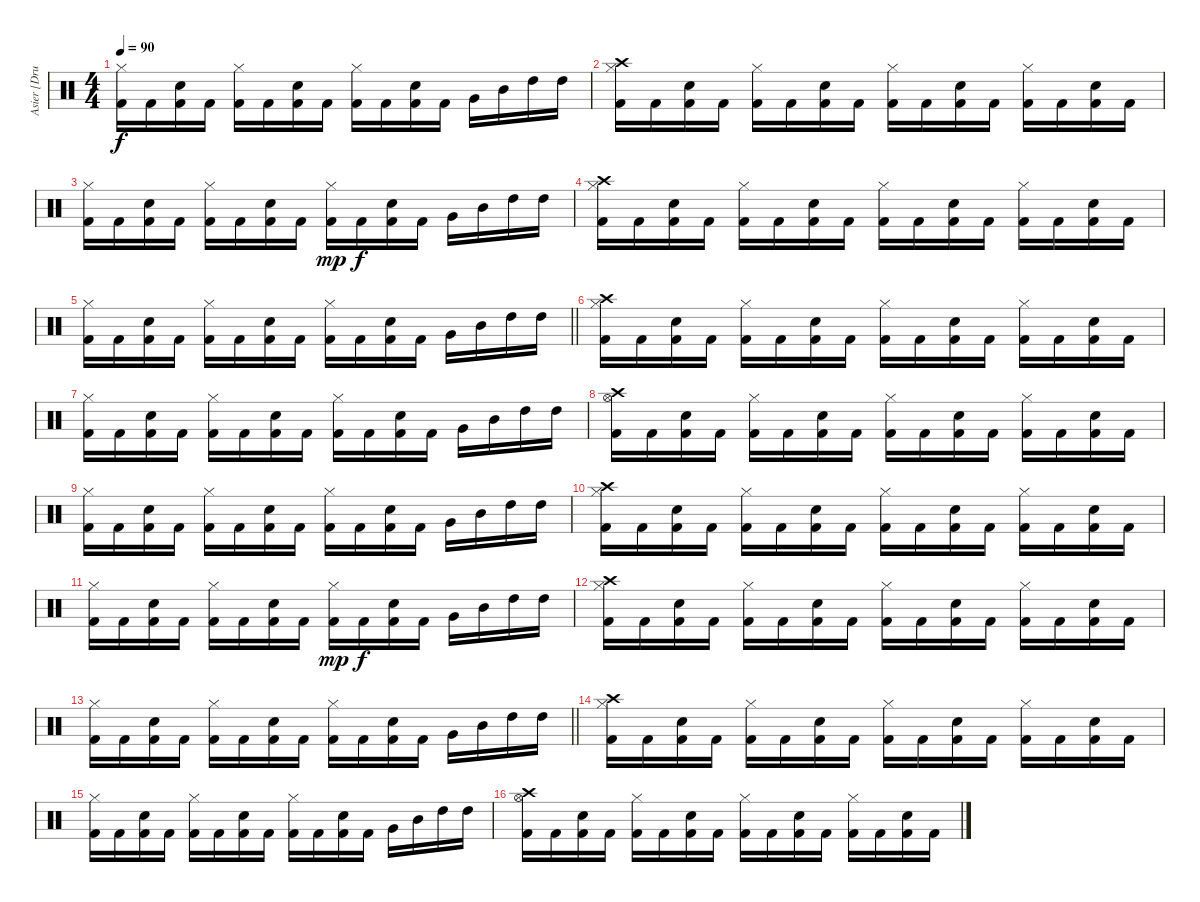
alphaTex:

\track ("Asier [Drums]" "Asier [Dru") {instrument percussion}
\staff {score}
\articulation defaults
\ts (4 4)
\tempo 90
\clef neutral
\ks c
("Hi-Hat (closed)" "Kick (hit) 2").16{dy f} "Kick (hit) 2".16 ("Snare (hit) 2" "Kick (hit) 2").16 "Kick (hit) 2".16 ("Hi-Hat (closed)" "Kick (hit) 2").16 "Kick (hit) 2".16 ("Snare (hit) 2" "Kick (hit) 2").16 "Kick (hit) 2".16 ("Hi-Hat (closed)" "Kick (hit) 2").16 "Kick (hit) 2".16 ("Snare (hit) 2" "Kick (hit) 2").16 "Kick (hit) 2".16 "Very Low Tom (hit)".16 "Mid Tom (hit)".16 "High Tom (hit)".16 "High Tom (hit)".16 |
("Crash high (hit)" "Hi-Hat (closed)" "Kick (hit) 2").16 "Kick (hit) 2".16 ("Snare (hit) 2" "Kick (hit) 2").16 "Kick (hit) 2".16 ("Hi-Hat (closed)" "Kick (hit) 2").16 "Kick (hit) 2".16 ("Snare (hit) 2" "Kick (hit) 2").16 "Kick (hit) 2".16 ("Hi-Hat (closed)" "Kick (hit) 2").16 "Kick (hit) 2".16 ("Snare (hit) 2" "Kick (hit) 2").16 "Kick (hit) 2".16 ("Hi-Hat (closed)" "Kick (hit) 2").16 "Kick (hit) 2".16 ("Snare (hit) 2" "Kick (hit) 2").16 "Kick (hit) 2".16 |
("Hi-Hat (closed)" "Kick (hit) 2").16 "Kick (hit) 2".16 ("Snare (hit) 2" "Kick (hit) 2").16 "Kick (hit) 2".16 ("Hi-Hat (closed)" "Kick (hit) 2").16 "Kick (hit) 2".16 ("Snare (hit) 2" "Kick (hit) 2").16 "Kick (hit) 2".16 ("Hi-Hat (closed)" "Kick (hit) 2").16{dy mp} "Kick (hit) 2".16{dy f} ("Snare (hit) 2" "Kick (hit) 2").16 "Kick (hit) 2".16 "Very Low Tom (hit)".16 "Mid Tom (hit)".16 "High Tom (hit)".16 "High Tom (hit)".16 |
("Crash high (hit)" "Hi-Hat (closed)" "Kick (hit) 2").16 "Kick (hit) 2".16 ("Snare (hit) 2" "Kick (hit) 2").16 "Kick (hit) 2".16 ("Hi-Hat (closed)" "Kick (hit) 2").16 "Kick (hit) 2".16 ("Snare (hit) 2" "Kick (hit) 2").16 "Kick (hit) 2".16 ("Hi-Hat (closed)" "Kick (hit) 2").16 "Kick (hit) 2".16 ("Snare (hit) 2" "Kick (hit) 2").16 "Kick (hit) 2".16 ("Hi-Hat (closed)" "Kick (hit) 2").16 "Kick (hit) 2".16 ("Snare (hit) 2" "Kick (hit) 2").16 "Kick (hit) 2".16 |
\barLineRight lightlight
("Hi-Hat (closed)" "Kick (hit) 2").16 "Kick (hit) 2".16 ("Snare (hit) 2" "Kick (hit) 2").16 "Kick (hit) 2".16 ("Hi-Hat (closed)" "Kick (hit) 2").16 "Kick (hit) 2".16 ("Snare (hit) 2" "Kick (hit) 2").16 "Kick (hit) 2".16 ("Hi-Hat (closed)" "Kick (hit) 2").16 "Kick (hit) 2".16 ("Snare (hit) 2" "Kick (hit) 2").16 "Kick (hit) 2".16 "Very Low Tom (hit)".16 "Mid Tom (hit)".16 "High Tom (hit)".16 "High Tom (hit)".16 |
("Crash high (hit)" "Hi-Hat (closed)" "Kick (hit) 2").16 "Kick (hit) 2".16 ("Snare (hit) 2" "Kick (hit) 2").16 "Kick (hit) 2".16 ("Hi-Hat (closed)" "Kick (hit) 2").16 "Kick (hit) 2".16 ("Snare (hit) 2" "Kick (hit) 2").16 "Kick (hit) 2".16 ("Hi-Hat (closed)" "Kick (hit) 2").16 "Kick (hit) 2".16 ("Snare (hit) 2" "Kick (hit) 2").16 "Kick (hit) 2".16 ("Hi-Hat (closed)" "Kick (hit) 2").16 "Kick (hit) 2".16 ("Snare (hit) 2" "Kick (hit) 2").16 "Kick (hit) 2".16 |
("Hi-Hat (closed)" "Kick (hit) 2").16 "Kick (hit) 2".16 ("Snare (hit) 2" "Kick (hit) 2").16 "Kick (hit) 2".16 ("Hi-Hat (closed)" "Kick (hit) 2").16 "Kick (hit) 2".16 ("Snare (hit) 2" "Kick (hit) 2").16 "Kick (hit) 2".16 ("Hi-Hat (closed)" "Kick (hit) 2").16 "Kick (hit) 2".16 ("Snare (hit) 2" "Kick (hit) 2").16 "Kick (hit) 2".16 "Very Low Tom (hit)".16 "Mid Tom (hit)".16 "High Tom (hit)".16 "High Tom (hit)".16 |
("Crash high (hit)" "Hi-Hat (open)" "Kick (hit) 2").16 "Kick (hit) 2".16 ("Snare (hit) 2" "Kick (hit) 2").16 "Kick (hit) 2".16 ("Hi-Hat (closed)" "Kick (hit) 2").16 "Kick (hit) 2".16 ("Snare (hit) 2" "Kick (hit) 2").16 "Kick (hit) 2".16 ("Hi-Hat (closed)" "Kick (hit) 2").16 "Kick (hit) 2".16 ("Snare (hit) 2" "Kick (hit) 2").16 "Kick (hit) 2".16 ("Hi-Hat (closed)" "Kick (hit) 2").16 "Kick (hit) 2".16 ("Snare (hit) 2" "Kick (hit) 2").16 "Kick (hit) 2".16 |
("Hi-Hat (closed)" "Kick (hit) 2").16 "Kick (hit) 2".16 ("Snare (hit) 2" "Kick (hit) 2").16 "Kick (hit) 2".16 ("Hi-Hat (closed)" "Kick (hit) 2").16 "Kick (hit) 2".16 ("Snare (hit) 2" "Kick (hit) 2").16 "Kick (hit) 2".16 ("Hi-Hat (closed)" "Kick (hit) 2").16 "Kick (hit) 2".16 ("Snare (hit) 2" "Kick (hit) 2").16 "Kick (hit) 2".16 "Very Low Tom (hit)".16 "Mid Tom (hit)".16 "High Tom (hit)".16 "High Tom (hit)".16 |
("Crash high (hit)" "Hi-Hat (closed)" "Kick (hit) 2").16 "Kick (hit) 2".16 ("Snare (hit) 2" "Kick (hit) 2").16 "Kick (hit) 2".16 ("Hi-Hat (closed)" "Kick (hit) 2").16 "Kick (hit) 2".16 ("Snare (hit) 2" "Kick (hit) 2").16 "Kick (hit) 2".16 ("Hi-Hat (closed)" "Kick (hit) 2").16 "Kick (hit) 2".16 ("Snare (hit) 2" "Kick (hit) 2").16 "Kick (hit) 2".16 ("Hi-Hat (closed)" "Kick (hit) 2").16 "Kick (hit) 2".16 ("Snare (hit) 2" "Kick (hit) 2").16 "Kick (hit) 2".16 |
("Hi-Hat (closed)" "Kick (hit) 2").16 "Kick (hit) 2".16 ("Snare (hit) 2" "Kick (hit) 2").16 "Kick (hit) 2".16 ("Hi-Hat (closed)" "Kick (hit) 2").16 "Kick (hit) 2".16 ("Snare (hit) 2" "Kick (hit) 2").16 "Kick (hit) 2".16 ("Hi-Hat (closed)" "Kick (hit) 2").16{dy mp} "Kick (hit) 2".16{dy f} ("Snare (hit) 2" "Kick (hit) 2").16 "Kick (hit) 2".16 "Very Low Tom (hit)".16 "Mid Tom (hit)".16 "High Tom (hit)".16 "High Tom (hit)".16 |
("Crash high (hit)" "Hi-Hat (closed)" "Kick (hit) 2").16 "Kick (hit) 2".16 ("Snare (hit) 2" "Kick (hit) 2").16 "Kick (hit) 2".16 ("Hi-Hat (closed)" "Kick (hit) 2").16 "Kick (hit) 2".16 ("Snare (hit) 2" "Kick (hit) 2").16 "Kick (hit) 2".16 ("Hi-Hat (closed)" "Kick (hit) 2").16 "Kick (hit) 2".16 ("Snare (hit) 2" "Kick (hit) 2").16 "Kick (hit) 2".16 ("Hi-Hat (closed)" "Kick (hit) 2").16 "Kick (hit) 2".16 ("Snare (hit) 2" "Kick (hit) 2").16 "Kick (hit) 2".16 |
\barLineRight lightlight
("Hi-Hat (closed)" "Kick (hit) 2").16 "Kick (hit) 2".16 ("Snare (hit) 2" "Kick (hit) 2").16 "Kick (hit) 2".16 ("Hi-Hat (closed)" "Kick (hit) 2").16 "Kick (hit) 2".16 ("Snare (hit) 2" "Kick (hit) 2").16 "Kick (hit) 2".16 ("Hi-Hat (closed)" "Kick (hit) 2").16 "Kick (hit) 2".16 ("Snare (hit) 2" "Kick (hit) 2").16 "Kick (hit) 2".16 "Very Low Tom (hit)".16 "Mid Tom (hit)".16 "High Tom (hit)".16 "High Tom (hit)".16 |
("Crash high (hit)" "Hi-Hat (closed)" "Kick (hit) 2").16 "Kick (hit) 2".16 ("Snare (hit) 2" "Kick (hit) 2").16 "Kick (hit) 2".16 ("Hi-Hat (closed)" "Kick (hit) 2").16 "Kick (hit) 2".16 ("Snare (hit) 2" "Kick (hit) 2").16 "Kick (hit) 2".16 ("Hi-Hat (closed)" "Kick (hit) 2").16 "Kick (hit) 2".16 ("Snare (hit) 2" "Kick (hit) 2").16 "Kick (hit) 2".16 ("Hi-Hat (closed)" "Kick (hit) 2").16 "Kick (hit) 2".16 ("Snare (hit) 2" "Kick (hit) 2").16 "Kick (hit) 2".16 |
("Hi-Hat (closed)" "Kick (hit) 2").16 "Kick (hit) 2".16 ("Snare (hit) 2" "Kick (hit) 2").16 "Kick (hit) 2".16 ("Hi-Hat (closed)" "Kick (hit) 2").16 "Kick (hit) 2".16 ("Snare (hit) 2" "Kick (hit) 2").16 "Kick (hit) 2".16 ("Hi-Hat (closed)" "Kick (hit) 2").16 "Kick (hit) 2".16 ("Snare (hit) 2" "Kick (hit) 2").16 "Kick (hit) 2".16 "Very Low Tom (hit)".16 "Mid Tom (hit)".16 "High Tom (hit)".16 "High Tom (hit)".16 |
("Crash high (hit)" "Hi-Hat (open)" "Kick (hit) 2").16 "Kick (hit) 2".16 ("Snare (hit) 2" "Kick (hit) 2").16 "Kick (hit) 2".16 ("Hi-Hat (closed)" "Kick (hit) 2").16 "Kick (hit) 2".16 ("Snare (hit) 2" "Kick (hit) 2").16 "Kick (hit) 2".16 ("Hi-Hat (closed)" "Kick (hit) 2").16 "Kick (hit) 2".16 ("Snare (hit) 2" "Kick (hit) 2").16 "Kick (hit) 2".16 ("Hi-Hat (closed)" "Kick (hit) 2").16 "Kick (hit) 2".16 ("Snare (hit) 2" "Kick (hit) 2").16 "Kick (hit) 2".16
